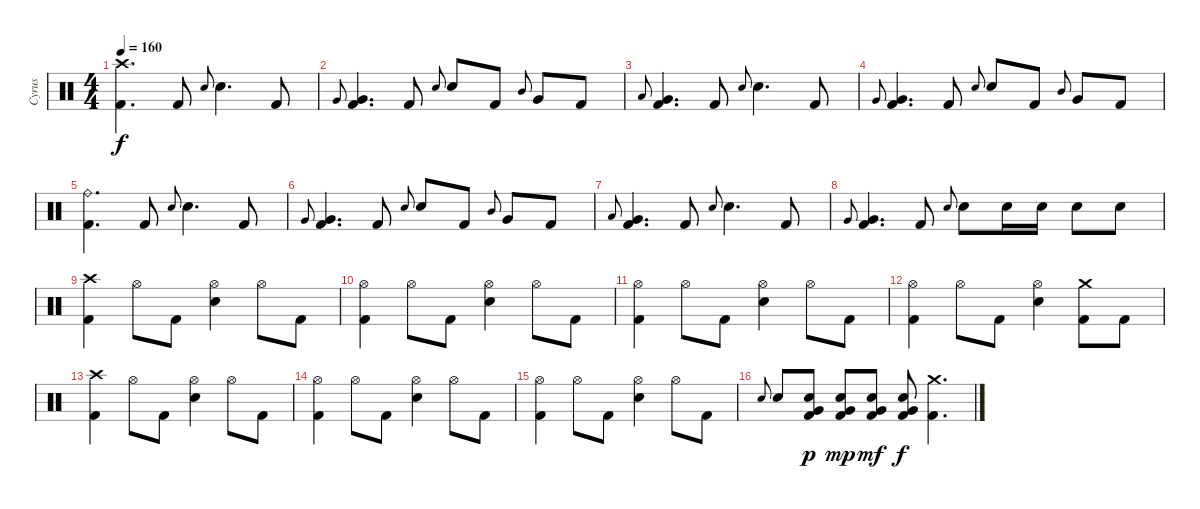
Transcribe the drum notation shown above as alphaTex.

\track ("Cyrus" "Cyrus") {instrument percussion}
\staff {score}
\articulation defaults
\ts (4 4)
\tempo 160
\clef neutral
\ks c
("Crash high (hit)" "Kick (hit) 2").4{d dy f} "Kick (hit) 2".8 "Snare (hit) 2".8{gr onbeat} "Snare (hit) 2".4{d} "Kick (hit) 2".8 |
"Very Low Tom (hit)".8{gr onbeat} ("Very Low Tom (hit)" "Kick (hit) 2").4{d} "Kick (hit) 2".8 "Snare (hit) 2".8{gr onbeat} "Snare (hit) 2".8 "Kick (hit) 2".8 "Mid Tom (hit)".8{gr onbeat} "Very Low Tom (hit)".8 "Kick (hit) 2".8 |
"Low Tom (hit)".8{gr onbeat} ("Very Low Tom (hit)" "Kick (hit) 2").4{d} "Kick (hit) 2".8 "Snare (hit) 2".8{gr onbeat} "Snare (hit) 2".4{d} "Kick (hit) 2".8 |
"Very Low Tom (hit)".8{gr onbeat} ("Very Low Tom (hit)" "Kick (hit) 2").4{d} "Kick (hit) 2".8 "Snare (hit) 2".8{gr onbeat} "Snare (hit) 2".8 "Kick (hit) 2".8 "Mid Tom (hit)".8{gr onbeat} "Very Low Tom (hit)".8 "Kick (hit) 2".8 |
("Ride (bell)" "Kick (hit) 2").4{d} "Kick (hit) 2".8 "Snare (hit) 2".8{gr onbeat} "Snare (hit) 2".4{d} "Kick (hit) 2".8 |
"Very Low Tom (hit)".8{gr onbeat} ("Very Low Tom (hit)" "Kick (hit) 2").4{d} "Kick (hit) 2".8 "Snare (hit) 2".8{gr onbeat} "Snare (hit) 2".8 "Kick (hit) 2".8 "Mid Tom (hit)".8{gr onbeat} "Very Low Tom (hit)".8 "Kick (hit) 2".8 |
"Low Tom (hit)".8{gr onbeat} ("Very Low Tom (hit)" "Kick (hit) 2").4{d} "Kick (hit) 2".8 "Snare (hit) 2".8{gr onbeat} "Snare (hit) 2".4{d} "Kick (hit) 2".8 |
"Very Low Tom (hit)".8{gr onbeat} ("Very Low Tom (hit)" "Kick (hit) 2").4{d} "Kick (hit) 2".8 "Snare (hit) 2".8{gr onbeat} "Snare (hit) 2".8 "Snare (hit) 2".16 "Snare (hit) 2".16 "Snare (hit) 2".8 "Snare (hit) 2".8 |
("Crash high (hit)" "Kick (hit) 2").4 "Hi-Hat (open)".8 "Kick (hit) 2".8 ("Hi-Hat (open)" "Snare (hit) 2").4 "Hi-Hat (open)".8 "Kick (hit) 2".8 |
("Hi-Hat (open)" "Kick (hit) 2").4 "Hi-Hat (open)".8 "Kick (hit) 2".8 ("Hi-Hat (open)" "Snare (hit) 2").4 "Hi-Hat (open)".8 "Kick (hit) 2".8 |
("Hi-Hat (open)" "Kick (hit) 2").4 "Hi-Hat (open)".8 "Kick (hit) 2".8 ("Hi-Hat (open)" "Snare (hit) 2").4 "Hi-Hat (open)".8 "Kick (hit) 2".8 |
("Hi-Hat (open)" "Kick (hit) 2").4 "Hi-Hat (open)".8 "Kick (hit) 2".8 ("Hi-Hat (open)" "Snare (hit) 2").4 ("Crash medium (hit)" "Kick (hit) 2").8 "Kick (hit) 2".8 |
("Crash high (hit)" "Kick (hit) 2").4 "Hi-Hat (open)".8 "Kick (hit) 2".8 ("Hi-Hat (open)" "Snare (hit) 2").4 "Hi-Hat (open)".8 "Kick (hit) 2".8 |
("Hi-Hat (open)" "Kick (hit) 2").4 "Hi-Hat (open)".8 "Kick (hit) 2".8 ("Hi-Hat (open)" "Snare (hit) 2").4 "Hi-Hat (open)".8 "Kick (hit) 2".8 |
("Hi-Hat (open)" "Kick (hit) 2").4 "Hi-Hat (open)".8 "Kick (hit) 2".8 ("Hi-Hat (open)" "Snare (hit) 2").4 "Hi-Hat (open)".8 "Kick (hit) 2".8 |
"Snare (hit) 2".8{gr onbeat} "Snare (hit) 2".8 ("Very Low Tom (hit)" "Snare (hit) 2" "Kick (hit) 2").8{dy p} ("Very Low Tom (hit)" "Snare (hit) 2" "Kick (hit) 2").8{dy mp} ("Very Low Tom (hit)" "Snare (hit) 2" "Kick (hit) 2").8{dy mf} ("Very Low Tom (hit)" "Snare (hit) 2" "Kick (hit) 2").8{dy f} ("Crash medium (hit)" "Kick (hit) 2").4{d}
